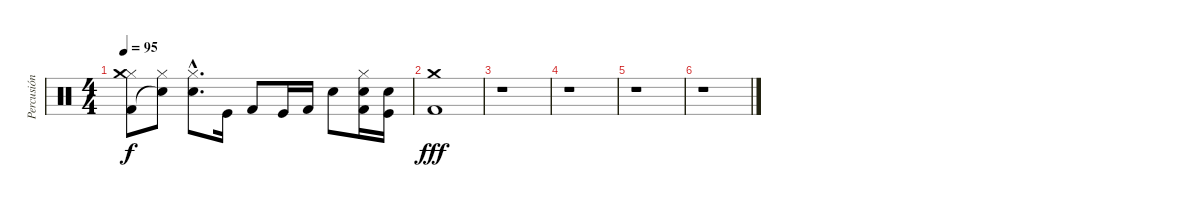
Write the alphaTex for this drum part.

\track ("Percusión" "Percusión") {instrument percussion}
\staff {score}
\articulation defaults
\ts (4 4)
\tempo 95
\clef neutral
\ks c
("Hi-Hat (closed)" "Kick (hit) 2" "Crash medium (hit)").8{dy f} ("Hi-Hat (closed)" "Snare (hit)"{t}).8 ("Snare (hit) 2"{hac} "Hi-Hat (closed)"{hac}).8{d balance 10} "Kick (hit)".16{balance 8} "Kick (hit) 2".8{balance 6} "Kick (hit)".16{balance 10} "Kick (hit) 2".16{balance 8} "Snare (hit) 2".8 ("Kick (hit) 2" "Hi-Hat (closed)" "Snare (hit) 2").16 ("Kick (hit)" "Snare (hit) 2").16 |
("Kick (hit) 2" "Crash medium (hit)").1{dy fff} |
r.1 |
r.1 |
r.1 |
r.1
